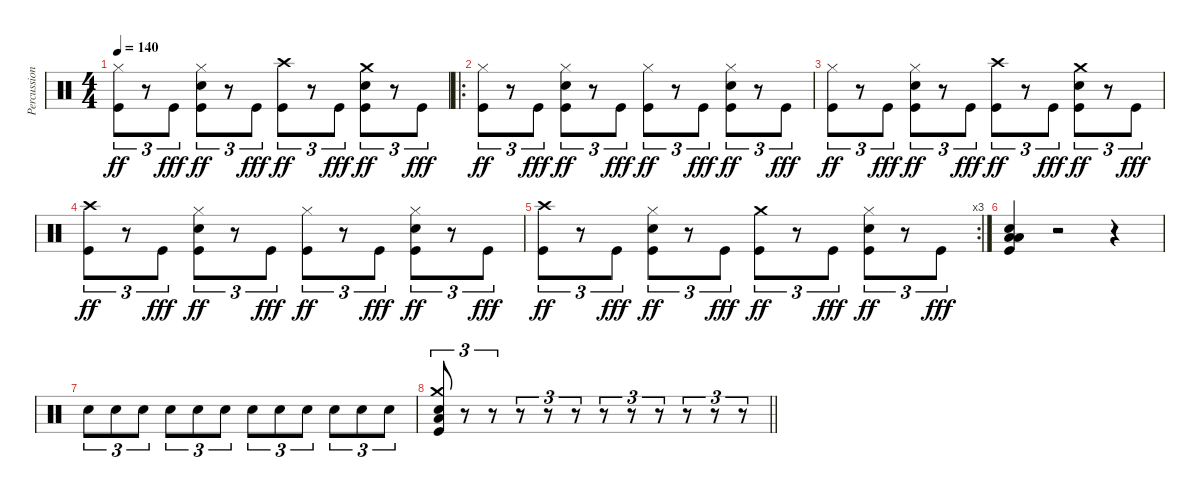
\track ("Percussions" "Percussion") {instrument percussion}
\staff {score}
\articulation defaults
\ts (4 4)
\tempo 140
\clef neutral
\ks c
("Hi-Hat (closed)" "Kick (hit)").8{tu (3 2) dy ff} r.8{tu (3 2)} "Kick (hit)".8{tu (3 2) dy fff} ("Hi-Hat (closed)" "Snare (hit) 2" "Kick (hit)").8{tu (3 2) dy ff} r.8{tu (3 2)} "Kick (hit)".8{tu (3 2) dy fff} ("Crash high (hit)" "Kick (hit)").8{tu (3 2) dy ff} r.8{tu (3 2)} "Kick (hit)".8{tu (3 2) dy fff} ("Crash medium (hit)" "Snare (hit) 2" "Kick (hit)").8{tu (3 2) dy ff} r.8{tu (3 2)} "Kick (hit)".8{tu (3 2) dy fff} |
\ro
("Hi-Hat (closed)" "Kick (hit)").8{tu (3 2) dy ff} r.8{tu (3 2)} "Kick (hit)".8{tu (3 2) dy fff} ("Hi-Hat (closed)" "Snare (hit) 2" "Kick (hit)").8{tu (3 2) dy ff} r.8{tu (3 2)} "Kick (hit)".8{tu (3 2) dy fff} ("Hi-Hat (closed)" "Kick (hit)").8{tu (3 2) dy ff} r.8{tu (3 2)} "Kick (hit)".8{tu (3 2) dy fff} ("Hi-Hat (closed)" "Snare (hit) 2" "Kick (hit)").8{tu (3 2) dy ff} r.8{tu (3 2)} "Kick (hit)".8{tu (3 2) dy fff} |
("Hi-Hat (closed)" "Kick (hit)").8{tu (3 2) dy ff} r.8{tu (3 2)} "Kick (hit)".8{tu (3 2) dy fff} ("Hi-Hat (closed)" "Snare (hit) 2" "Kick (hit)").8{tu (3 2) dy ff} r.8{tu (3 2)} "Kick (hit)".8{tu (3 2) dy fff} ("Crash high (hit)" "Kick (hit)").8{tu (3 2) dy ff} r.8{tu (3 2)} "Kick (hit)".8{tu (3 2) dy fff} ("Crash medium (hit)" "Snare (hit) 2" "Kick (hit)").8{tu (3 2) dy ff} r.8{tu (3 2)} "Kick (hit)".8{tu (3 2) dy fff} |
("Crash high (hit)" "Kick (hit)").8{tu (3 2) dy ff} r.8{tu (3 2)} "Kick (hit)".8{tu (3 2) dy fff} ("Hi-Hat (closed)" "Snare (hit) 2" "Kick (hit)").8{tu (3 2) dy ff} r.8{tu (3 2)} "Kick (hit)".8{tu (3 2) dy fff} ("Hi-Hat (closed)" "Kick (hit)").8{tu (3 2) dy ff} r.8{tu (3 2)} "Kick (hit)".8{tu (3 2) dy fff} ("Hi-Hat (closed)" "Snare (hit) 2" "Kick (hit)").8{tu (3 2) dy ff} r.8{tu (3 2)} "Kick (hit)".8{tu (3 2) dy fff} |
\rc 3
("Crash high (hit)" "Kick (hit)").8{tu (3 2) dy ff} r.8{tu (3 2)} "Kick (hit)".8{tu (3 2) dy fff} ("Hi-Hat (closed)" "Snare (hit) 2" "Kick (hit)").8{tu (3 2) dy ff} r.8{tu (3 2)} "Kick (hit)".8{tu (3 2) dy fff} ("Crash medium (hit)" "Kick (hit)").8{tu (3 2) dy ff} r.8{tu (3 2)} "Kick (hit)".8{tu (3 2) dy fff} ("Hi-Hat (closed)" "Snare (hit) 2" "Kick (hit)").8{tu (3 2) dy ff} r.8{tu (3 2)} "Kick (hit)".8{tu (3 2) dy fff} |
("Snare (hit) 2" "Low Floor Tom (hit)" "Low Tom (hit)" "Kick (hit)").4 r.2 r.4 |
"Snare (hit) 2".8{tu (3 2)} "Snare (hit) 2".8{tu (3 2)} "Snare (hit) 2".8{tu (3 2)} "Snare (hit) 2".8{tu (3 2)} "Snare (hit) 2".8{tu (3 2)} "Snare (hit) 2".8{tu (3 2)} "Snare (hit) 2".8{tu (3 2)} "Snare (hit) 2".8{tu (3 2)} "Snare (hit) 2".8{tu (3 2)} "Snare (hit) 2".8{tu (3 2)} "Snare (hit) 2".8{tu (3 2)} "Snare (hit) 2".8{tu (3 2)} |
\barLineRight lightlight
("Crash medium (hit)" "Low Floor Tom (hit)" "Snare (hit) 2" "Kick (hit)").8{tu (3 2)} r.8{tu (3 2)} r.8{tu (3 2)} r.8{tu (3 2)} r.8{tu (3 2)} r.8{tu (3 2)} r.8{tu (3 2)} r.8{tu (3 2)} r.8{tu (3 2)} r.8{tu (3 2)} r.8{tu (3 2)} r.8{tu (3 2)}
